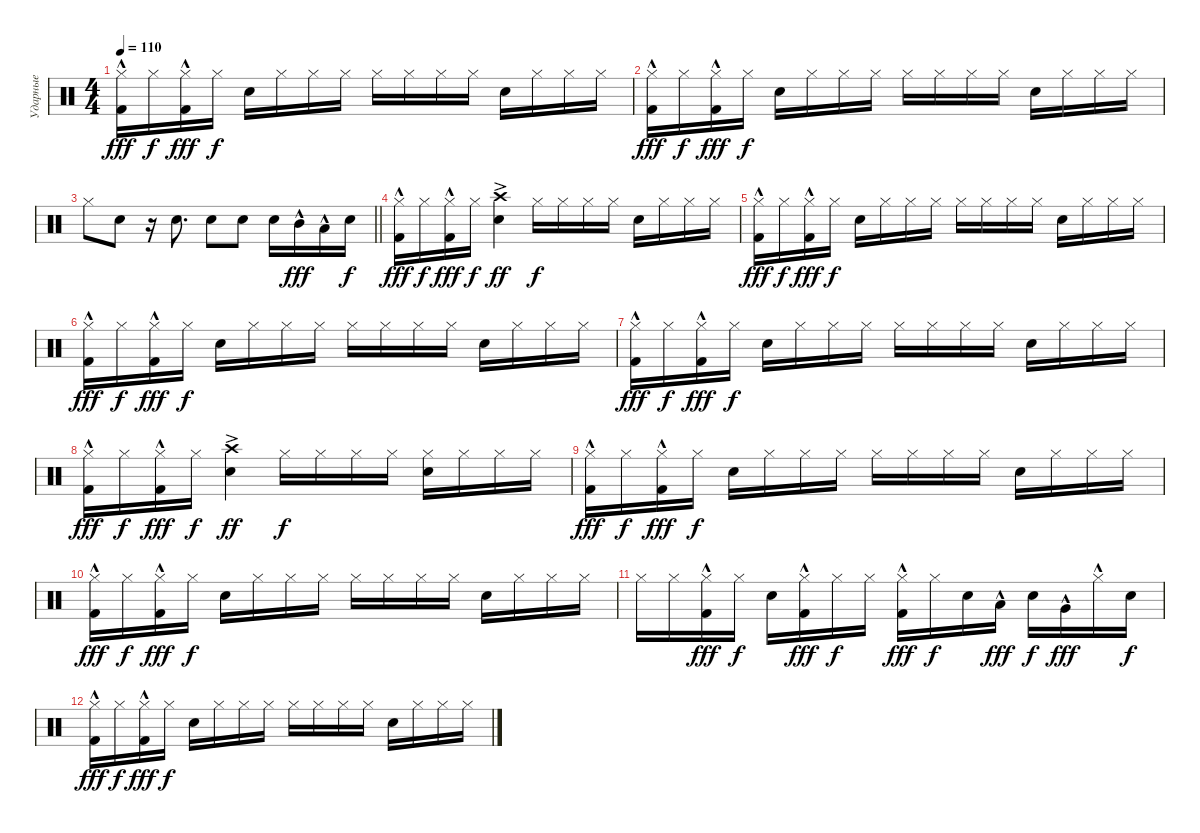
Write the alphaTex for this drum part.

\track ("Ударные" "Ударные") {instrument percussion}
\staff {score}
\articulation defaults
\ts (4 4)
\tempo 110
\clef neutral
\ks c
("Hi-Hat (closed)" "Kick (hit) 2"{hac}).16{dy fff} "Hi-Hat (closed)".16{dy f} ("Hi-Hat (closed)" "Kick (hit) 2"{hac}).16{dy fff} "Hi-Hat (closed)".16{dy f} "Snare (hit) 2".16 "Hi-Hat (closed)".16 "Hi-Hat (closed)".16 "Hi-Hat (closed)".16 "Hi-Hat (closed)".16 "Hi-Hat (closed)".16 "Hi-Hat (closed)".16 "Hi-Hat (closed)".16 "Snare (hit) 2".16 "Hi-Hat (closed)".16 "Hi-Hat (closed)".16 "Hi-Hat (closed)".16 |
("Hi-Hat (closed)" "Kick (hit) 2"{hac}).16{dy fff} "Hi-Hat (closed)".16{dy f} ("Hi-Hat (closed)" "Kick (hit) 2"{hac}).16{dy fff} "Hi-Hat (closed)".16{dy f} "Snare (hit) 2".16 "Hi-Hat (closed)".16 "Hi-Hat (closed)".16 "Hi-Hat (closed)".16 "Hi-Hat (closed)".16 "Hi-Hat (closed)".16 "Hi-Hat (closed)".16 "Hi-Hat (closed)".16 "Snare (hit) 2".16 "Hi-Hat (closed)".16 "Hi-Hat (closed)".16 "Hi-Hat (closed)".16 |
\barLineRight lightlight "Hi-Hat (closed)".8 "Snare (hit) 2".8
r.16 "Snare (hit) 2".8{d} "Snare (hit) 2".8 "Snare (hit) 2".8 "Snare (hit) 2".16 "Mid Tom (hit)"{hac}.16{dy fff} "Low Tom (hit)"{hac}.16 "Snare (hit) 2".16{dy f} |
("Hi-Hat (closed)" "Kick (hit) 2"{hac}).16{dy fff} "Hi-Hat (closed)".16{dy f} ("Hi-Hat (closed)" "Kick (hit) 2"{hac}).16{dy fff} "Hi-Hat (closed)".16{dy f} ("Crash high (hit)"{ac} "Snare (hit) 2").4{dy ff} "Hi-Hat (closed)".16{dy f} "Hi-Hat (closed)".16 "Hi-Hat (closed)".16 "Hi-Hat (closed)".16 "Snare (hit) 2".16 "Hi-Hat (closed)".16 "Hi-Hat (closed)".16 "Hi-Hat (closed)".16 |
("Hi-Hat (closed)" "Kick (hit) 2"{hac}).16{dy fff} "Hi-Hat (closed)".16{dy f} ("Hi-Hat (closed)" "Kick (hit) 2"{hac}).16{dy fff} "Hi-Hat (closed)".16{dy f} "Snare (hit) 2".16 "Hi-Hat (closed)".16 "Hi-Hat (closed)".16 "Hi-Hat (closed)".16 "Hi-Hat (closed)".16 "Hi-Hat (closed)".16 "Hi-Hat (closed)".16 "Hi-Hat (closed)".16 "Snare (hit) 2".16 "Hi-Hat (closed)".16 "Hi-Hat (closed)".16 "Hi-Hat (closed)".16 |
("Hi-Hat (closed)" "Kick (hit) 2"{hac}).16{dy fff} "Hi-Hat (closed)".16{dy f} ("Hi-Hat (closed)" "Kick (hit) 2"{hac}).16{dy fff} "Hi-Hat (closed)".16{dy f} "Snare (hit) 2".16 "Hi-Hat (closed)".16 "Hi-Hat (closed)".16 "Hi-Hat (closed)".16 "Hi-Hat (closed)".16 "Hi-Hat (closed)".16 "Hi-Hat (closed)".16 "Hi-Hat (closed)".16 "Snare (hit) 2".16 "Hi-Hat (closed)".16 "Hi-Hat (closed)".16 "Hi-Hat (closed)".16 |
("Hi-Hat (closed)" "Kick (hit) 2"{hac}).16{dy fff} "Hi-Hat (closed)".16{dy f} ("Hi-Hat (closed)" "Kick (hit) 2"{hac}).16{dy fff} "Hi-Hat (closed)".16{dy f} "Snare (hit) 2".16 "Hi-Hat (closed)".16 "Hi-Hat (closed)".16 "Hi-Hat (closed)".16 "Hi-Hat (closed)".16 "Hi-Hat (closed)".16 "Hi-Hat (closed)".16 "Hi-Hat (closed)".16 "Snare (hit) 2".16 "Hi-Hat (closed)".16 "Hi-Hat (closed)".16 "Hi-Hat (closed)".16 |
("Hi-Hat (closed)" "Kick (hit) 2"{hac}).16{dy fff} "Hi-Hat (closed)".16{dy f} ("Hi-Hat (closed)" "Kick (hit) 2"{hac}).16{dy fff} "Hi-Hat (closed)".16{dy f} ("Crash high (hit)"{ac} "Snare (hit) 2").4{dy ff} "Hi-Hat (closed)".16{dy f} "Hi-Hat (closed)".16 "Hi-Hat (closed)".16 "Hi-Hat (closed)".16 ("Hi-Hat (closed)" "Snare (hit) 2").16 "Hi-Hat (closed)".16 "Hi-Hat (closed)".16 "Hi-Hat (closed)".16 |
("Hi-Hat (closed)" "Kick (hit) 2"{hac}).16{dy fff} "Hi-Hat (closed)".16{dy f} ("Hi-Hat (closed)" "Kick (hit) 2"{hac}).16{dy fff} "Hi-Hat (closed)".16{dy f} "Snare (hit) 2".16 "Hi-Hat (closed)".16 "Hi-Hat (closed)".16 "Hi-Hat (closed)".16 "Hi-Hat (closed)".16 "Hi-Hat (closed)".16 "Hi-Hat (closed)".16 "Hi-Hat (closed)".16 "Snare (hit) 2".16 "Hi-Hat (closed)".16 "Hi-Hat (closed)".16 "Hi-Hat (closed)".16 |
("Hi-Hat (closed)" "Kick (hit) 2"{hac}).16{dy fff} "Hi-Hat (closed)".16{dy f} ("Hi-Hat (closed)" "Kick (hit) 2"{hac}).16{dy fff} "Hi-Hat (closed)".16{dy f} "Snare (hit) 2".16 "Hi-Hat (closed)".16 "Hi-Hat (closed)".16 "Hi-Hat (closed)".16 "Hi-Hat (closed)".16 "Hi-Hat (closed)".16 "Hi-Hat (closed)".16 "Hi-Hat (closed)".16 "Snare (hit) 2".16 "Hi-Hat (closed)".16 "Hi-Hat (closed)".16 "Hi-Hat (closed)".16 |
"Hi-Hat (closed)".16 "Hi-Hat (closed)".16 ("Hi-Hat (closed)" "Kick (hit) 2"{hac}).16{dy fff} "Hi-Hat (closed)".16{dy f} "Snare (hit) 2".16 ("Hi-Hat (closed)" "Kick (hit) 2"{hac}).16{dy fff} "Hi-Hat (closed)".16{dy f} "Hi-Hat (closed)".16 ("Hi-Hat (closed)" "Kick (hit) 2"{hac}).16{dy fff} "Hi-Hat (closed)".16{dy f} "Snare (hit) 2".16 "Low Tom (hit)"{hac}.16{dy fff} "Snare (hit) 2".16{dy f} "Very Low Tom (hit)"{hac}.16{dy fff} "Hi-Hat (closed)"{hac}.16 "Snare (hit) 2".16{dy f} |
("Hi-Hat (closed)" "Kick (hit) 2"{hac}).16{dy fff} "Hi-Hat (closed)".16{dy f} ("Hi-Hat (closed)" "Kick (hit) 2"{hac}).16{dy fff} "Hi-Hat (closed)".16{dy f} "Snare (hit) 2".16 "Hi-Hat (closed)".16 "Hi-Hat (closed)".16 "Hi-Hat (closed)".16 "Hi-Hat (closed)".16 "Hi-Hat (closed)".16 "Hi-Hat (closed)".16 "Hi-Hat (closed)".16 "Snare (hit) 2".16 "Hi-Hat (closed)".16 "Hi-Hat (closed)".16 "Hi-Hat (closed)".16
